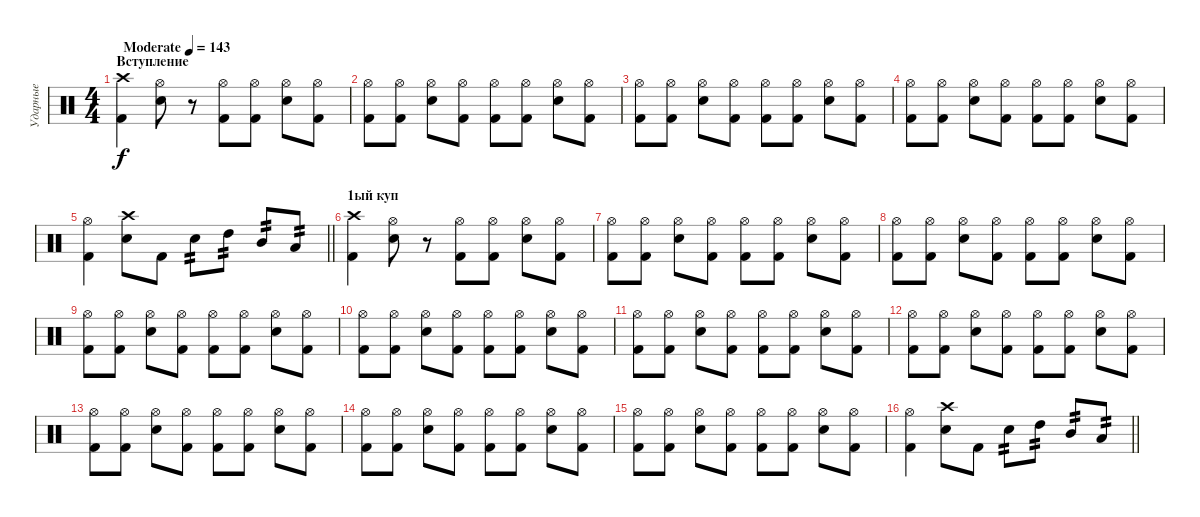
\track ("Ударные" "Ударные") {instrument percussion}
\staff {score}
\articulation defaults
\ts (4 4)
\section ("" "Вступление")
\tempo (143 "Moderate")
\clef neutral
\ks c
("Crash high (hit)" "Kick (hit) 2").4{dy f} ("Hi-Hat (open)" "Electric Snare (hit)").8 r.8 ("Hi-Hat (open)" "Kick (hit) 2").8 ("Hi-Hat (open)" "Kick (hit) 2").8 ("Hi-Hat (open)" "Electric Snare (hit)").8 ("Hi-Hat (open)" "Kick (hit) 2").8 |
("Hi-Hat (open)" "Kick (hit) 2").8 ("Hi-Hat (open)" "Kick (hit) 2").8 ("Hi-Hat (open)" "Electric Snare (hit)").8 ("Hi-Hat (open)" "Kick (hit) 2").8 ("Hi-Hat (open)" "Kick (hit) 2").8 ("Hi-Hat (open)" "Kick (hit) 2").8 ("Hi-Hat (open)" "Electric Snare (hit)").8 ("Hi-Hat (open)" "Kick (hit) 2").8 |
("Hi-Hat (open)" "Kick (hit) 2").8 ("Hi-Hat (open)" "Kick (hit) 2").8 ("Hi-Hat (open)" "Electric Snare (hit)").8 ("Hi-Hat (open)" "Kick (hit) 2").8 ("Hi-Hat (open)" "Kick (hit) 2").8 ("Hi-Hat (open)" "Kick (hit) 2").8 ("Hi-Hat (open)" "Electric Snare (hit)").8 ("Hi-Hat (open)" "Kick (hit) 2").8 |
("Hi-Hat (open)" "Kick (hit) 2").8 ("Hi-Hat (open)" "Kick (hit) 2").8 ("Hi-Hat (open)" "Electric Snare (hit)").8 ("Hi-Hat (open)" "Kick (hit) 2").8 ("Hi-Hat (open)" "Kick (hit) 2").8 ("Hi-Hat (open)" "Kick (hit) 2").8 ("Hi-Hat (open)" "Electric Snare (hit)").8 ("Hi-Hat (open)" "Kick (hit) 2").8 |
\barLineRight lightlight
("Hi-Hat (open)" "Kick (hit) 2").4 ("Crash high (hit)" "Electric Snare (hit)").8 "Kick (hit) 2".8 "Electric Snare (hit)".8{tp 2} "High Tom (hit)".8{tp 2} "Mid Tom (hit)".8{tp 2} "Low Tom (hit)".8{tp 2} |
\section ("" "1ый куп")
("Crash high (hit)" "Kick (hit) 2").4 ("Hi-Hat (open)" "Electric Snare (hit)").8 r.8 ("Hi-Hat (open)" "Kick (hit) 2").8 ("Hi-Hat (open)" "Kick (hit) 2").8 ("Hi-Hat (open)" "Electric Snare (hit)").8 ("Hi-Hat (open)" "Kick (hit) 2").8 |
("Hi-Hat (open)" "Kick (hit) 2").8 ("Hi-Hat (open)" "Kick (hit) 2").8 ("Hi-Hat (open)" "Electric Snare (hit)").8 ("Hi-Hat (open)" "Kick (hit) 2").8 ("Hi-Hat (open)" "Kick (hit) 2").8 ("Hi-Hat (open)" "Kick (hit) 2").8 ("Hi-Hat (open)" "Electric Snare (hit)").8 ("Hi-Hat (open)" "Kick (hit) 2").8 |
("Hi-Hat (open)" "Kick (hit) 2").8 ("Hi-Hat (open)" "Kick (hit) 2").8 ("Hi-Hat (open)" "Electric Snare (hit)").8 ("Hi-Hat (open)" "Kick (hit) 2").8 ("Hi-Hat (open)" "Kick (hit) 2").8 ("Hi-Hat (open)" "Kick (hit) 2").8 ("Hi-Hat (open)" "Electric Snare (hit)").8 ("Hi-Hat (open)" "Kick (hit) 2").8 |
("Hi-Hat (open)" "Kick (hit) 2").8 ("Hi-Hat (open)" "Kick (hit) 2").8 ("Hi-Hat (open)" "Electric Snare (hit)").8 ("Hi-Hat (open)" "Kick (hit) 2").8 ("Hi-Hat (open)" "Kick (hit) 2").8 ("Hi-Hat (open)" "Kick (hit) 2").8 ("Hi-Hat (open)" "Electric Snare (hit)").8 ("Hi-Hat (open)" "Kick (hit) 2").8 |
("Hi-Hat (open)" "Kick (hit) 2").8 ("Hi-Hat (open)" "Kick (hit) 2").8 ("Hi-Hat (open)" "Electric Snare (hit)").8 ("Hi-Hat (open)" "Kick (hit) 2").8 ("Hi-Hat (open)" "Kick (hit) 2").8 ("Hi-Hat (open)" "Kick (hit) 2").8 ("Hi-Hat (open)" "Electric Snare (hit)").8 ("Hi-Hat (open)" "Kick (hit) 2").8 |
("Hi-Hat (open)" "Kick (hit) 2").8 ("Hi-Hat (open)" "Kick (hit) 2").8 ("Hi-Hat (open)" "Electric Snare (hit)").8 ("Hi-Hat (open)" "Kick (hit) 2").8 ("Hi-Hat (open)" "Kick (hit) 2").8 ("Hi-Hat (open)" "Kick (hit) 2").8 ("Hi-Hat (open)" "Electric Snare (hit)").8 ("Hi-Hat (open)" "Kick (hit) 2").8 |
("Hi-Hat (open)" "Kick (hit) 2").8 ("Hi-Hat (open)" "Kick (hit) 2").8 ("Hi-Hat (open)" "Electric Snare (hit)").8 ("Hi-Hat (open)" "Kick (hit) 2").8 ("Hi-Hat (open)" "Kick (hit) 2").8 ("Hi-Hat (open)" "Kick (hit) 2").8 ("Hi-Hat (open)" "Electric Snare (hit)").8 ("Hi-Hat (open)" "Kick (hit) 2").8 |
("Hi-Hat (open)" "Kick (hit) 2").8 ("Hi-Hat (open)" "Kick (hit) 2").8 ("Hi-Hat (open)" "Electric Snare (hit)").8 ("Hi-Hat (open)" "Kick (hit) 2").8 ("Hi-Hat (open)" "Kick (hit) 2").8 ("Hi-Hat (open)" "Kick (hit) 2").8 ("Hi-Hat (open)" "Electric Snare (hit)").8 ("Hi-Hat (open)" "Kick (hit) 2").8 |
("Hi-Hat (open)" "Kick (hit) 2").8 ("Hi-Hat (open)" "Kick (hit) 2").8 ("Hi-Hat (open)" "Electric Snare (hit)").8 ("Hi-Hat (open)" "Kick (hit) 2").8 ("Hi-Hat (open)" "Kick (hit) 2").8 ("Hi-Hat (open)" "Kick (hit) 2").8 ("Hi-Hat (open)" "Electric Snare (hit)").8 ("Hi-Hat (open)" "Kick (hit) 2").8 |
("Hi-Hat (open)" "Kick (hit) 2").8 ("Hi-Hat (open)" "Kick (hit) 2").8 ("Hi-Hat (open)" "Electric Snare (hit)").8 ("Hi-Hat (open)" "Kick (hit) 2").8 ("Hi-Hat (open)" "Kick (hit) 2").8 ("Hi-Hat (open)" "Kick (hit) 2").8 ("Hi-Hat (open)" "Electric Snare (hit)").8 ("Hi-Hat (open)" "Kick (hit) 2").8 |
\barLineRight lightlight
("Hi-Hat (open)" "Kick (hit) 2").4 ("Crash high (hit)" "Electric Snare (hit)").8 "Kick (hit) 2".8 "Electric Snare (hit)".8{tp 2} "High Tom (hit)".8{tp 2} "Mid Tom (hit)".8{tp 2} "Low Tom (hit)".8{tp 2}
